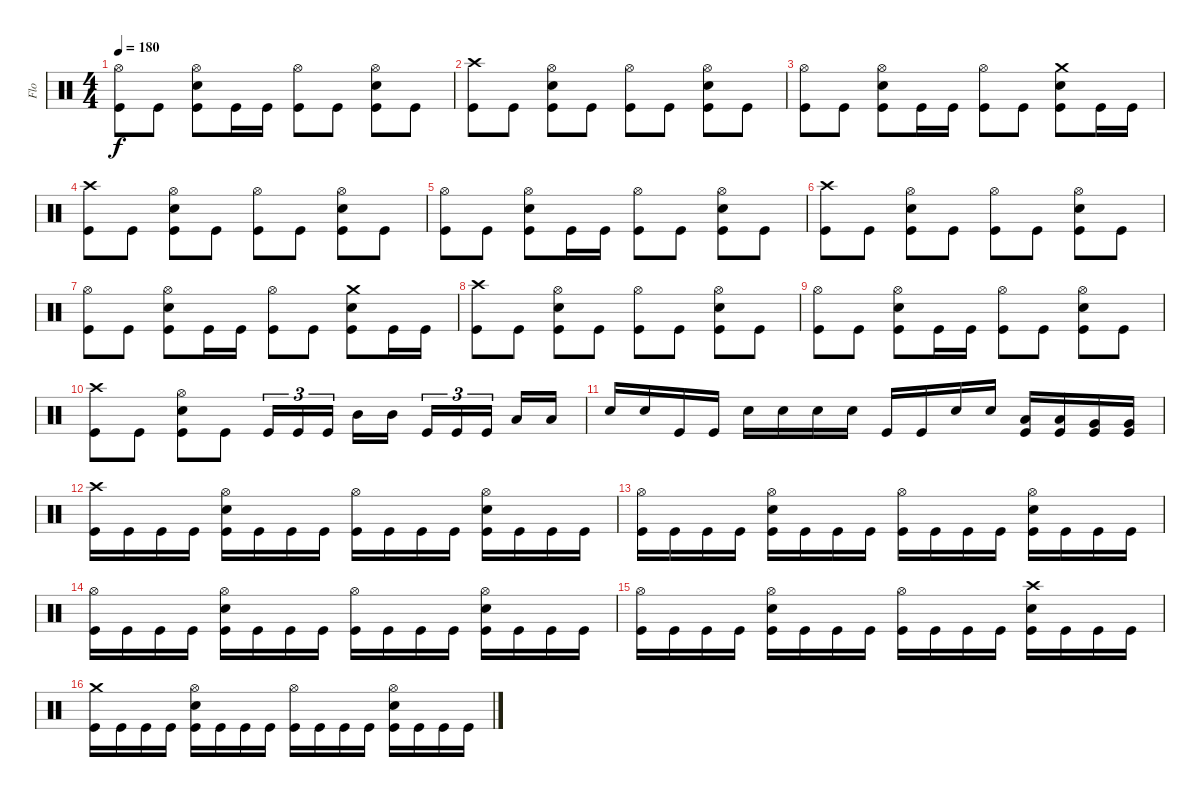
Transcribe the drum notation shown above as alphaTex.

\track ("Flo" "Flo") {instrument percussion}
\staff {score}
\articulation defaults
\ts (4 4)
\tempo 180
\clef neutral
\ks c
("Hi-Hat (open)" "Kick (hit)").8{dy f} "Kick (hit)".8 ("Hi-Hat (open)" "Snare (hit) 2" "Kick (hit)").8 "Kick (hit)".16 "Kick (hit)".16 ("Hi-Hat (open)" "Kick (hit)").8 "Kick (hit)".8 ("Hi-Hat (open)" "Snare (hit) 2" "Kick (hit)").8 "Kick (hit)".8 |
("Crash high (hit)" "Kick (hit)").8 "Kick (hit)".8 ("Hi-Hat (open)" "Snare (hit) 2" "Kick (hit)").8 "Kick (hit)".8 ("Hi-Hat (open)" "Kick (hit)").8 "Kick (hit)".8 ("Hi-Hat (open)" "Snare (hit) 2" "Kick (hit)").8 "Kick (hit)".8 |
("Hi-Hat (open)" "Kick (hit)").8 "Kick (hit)".8 ("Hi-Hat (open)" "Snare (hit) 2" "Kick (hit)").8 "Kick (hit)".16 "Kick (hit)".16 ("Hi-Hat (open)" "Kick (hit)").8 "Kick (hit)".8 ("Crash medium (hit)" "Snare (hit) 2" "Kick (hit)").8 "Kick (hit)".16 "Kick (hit)".16 |
("Crash high (hit)" "Kick (hit)").8 "Kick (hit)".8 ("Hi-Hat (open)" "Snare (hit) 2" "Kick (hit)").8 "Kick (hit)".8 ("Hi-Hat (open)" "Kick (hit)").8 "Kick (hit)".8 ("Hi-Hat (open)" "Snare (hit) 2" "Kick (hit)").8 "Kick (hit)".8 |
("Hi-Hat (open)" "Kick (hit)").8 "Kick (hit)".8 ("Hi-Hat (open)" "Snare (hit) 2" "Kick (hit)").8 "Kick (hit)".16 "Kick (hit)".16 ("Hi-Hat (open)" "Kick (hit)").8 "Kick (hit)".8 ("Hi-Hat (open)" "Snare (hit) 2" "Kick (hit)").8 "Kick (hit)".8 |
("Crash high (hit)" "Kick (hit)").8 "Kick (hit)".8 ("Hi-Hat (open)" "Snare (hit) 2" "Kick (hit)").8 "Kick (hit)".8 ("Hi-Hat (open)" "Kick (hit)").8 "Kick (hit)".8 ("Hi-Hat (open)" "Snare (hit) 2" "Kick (hit)").8 "Kick (hit)".8 |
("Hi-Hat (open)" "Kick (hit)").8 "Kick (hit)".8 ("Hi-Hat (open)" "Snare (hit) 2" "Kick (hit)").8 "Kick (hit)".16 "Kick (hit)".16 ("Hi-Hat (open)" "Kick (hit)").8 "Kick (hit)".8 ("Crash medium (hit)" "Snare (hit) 2" "Kick (hit)").8 "Kick (hit)".16 "Kick (hit)".16 |
("Crash high (hit)" "Kick (hit)").8 "Kick (hit)".8 ("Hi-Hat (open)" "Snare (hit) 2" "Kick (hit)").8 "Kick (hit)".8 ("Hi-Hat (open)" "Kick (hit)").8 "Kick (hit)".8 ("Hi-Hat (open)" "Snare (hit) 2" "Kick (hit)").8 "Kick (hit)".8 |
("Hi-Hat (open)" "Kick (hit)").8 "Kick (hit)".8 ("Hi-Hat (open)" "Snare (hit) 2" "Kick (hit)").8 "Kick (hit)".16 "Kick (hit)".16 ("Hi-Hat (open)" "Kick (hit)").8 "Kick (hit)".8 ("Hi-Hat (open)" "Snare (hit) 2" "Kick (hit)").8 "Kick (hit)".8 |
("Crash high (hit)" "Kick (hit)").8 "Kick (hit)".8 ("Hi-Hat (open)" "Snare (hit) 2" "Kick (hit)").8 "Kick (hit)".8 "Kick (hit)".16{tu (3 2)} "Kick (hit)".16{tu (3 2)} "Kick (hit)".16{tu (3 2)} "Mid Tom (hit)".16 "Mid Tom (hit)".16 "Kick (hit)".16{tu (3 2)} "Kick (hit)".16{tu (3 2)} "Kick (hit)".16{tu (3 2)} "Low Tom (hit)".16 "Low Tom (hit)".16 |
"Snare (hit) 2".16 "Snare (hit) 2".16 "Kick (hit)".16 "Kick (hit)".16 "Snare (hit) 2".16 "Snare (hit) 2".16 "Snare (hit) 2".16 "Snare (hit) 2".16 "Kick (hit)".16 "Kick (hit)".16 "Snare (hit) 2".16 "Snare (hit) 2".16 ("Low Tom (hit)" "Kick (hit)").16 ("Low Tom (hit)" "Kick (hit)").16 ("Very Low Tom (hit)" "Kick (hit)").16 ("Very Low Tom (hit)" "Kick (hit)").16 |
("Crash high (hit)" "Kick (hit)").16 "Kick (hit)".16 "Kick (hit)".16 "Kick (hit)".16 ("Hi-Hat (open)" "Snare (hit) 2" "Kick (hit)").16 "Kick (hit)".16 "Kick (hit)".16 "Kick (hit)".16 ("Hi-Hat (open)" "Kick (hit)").16 "Kick (hit)".16 "Kick (hit)".16 "Kick (hit)".16 ("Hi-Hat (open)" "Snare (hit) 2" "Kick (hit)").16 "Kick (hit)".16 "Kick (hit)".16 "Kick (hit)".16 |
("Hi-Hat (open)" "Kick (hit)").16 "Kick (hit)".16 "Kick (hit)".16 "Kick (hit)".16 ("Hi-Hat (open)" "Snare (hit) 2" "Kick (hit)").16 "Kick (hit)".16 "Kick (hit)".16 "Kick (hit)".16 ("Hi-Hat (open)" "Kick (hit)").16 "Kick (hit)".16 "Kick (hit)".16 "Kick (hit)".16 ("Hi-Hat (open)" "Snare (hit) 2" "Kick (hit)").16 "Kick (hit)".16 "Kick (hit)".16 "Kick (hit)".16 |
("Hi-Hat (open)" "Kick (hit)").16 "Kick (hit)".16 "Kick (hit)".16 "Kick (hit)".16 ("Hi-Hat (open)" "Snare (hit) 2" "Kick (hit)").16 "Kick (hit)".16 "Kick (hit)".16 "Kick (hit)".16 ("Hi-Hat (open)" "Kick (hit)").16 "Kick (hit)".16 "Kick (hit)".16 "Kick (hit)".16 ("Hi-Hat (open)" "Snare (hit) 2" "Kick (hit)").16 "Kick (hit)".16 "Kick (hit)".16 "Kick (hit)".16 |
("Hi-Hat (open)" "Kick (hit)").16 "Kick (hit)".16 "Kick (hit)".16 "Kick (hit)".16 ("Hi-Hat (open)" "Snare (hit) 2" "Kick (hit)").16 "Kick (hit)".16 "Kick (hit)".16 "Kick (hit)".16 ("Hi-Hat (open)" "Kick (hit)").16 "Kick (hit)".16 "Kick (hit)".16 "Kick (hit)".16 ("Crash high (hit)" "Snare (hit) 2" "Kick (hit)").16 "Kick (hit)".16 "Kick (hit)".16 "Kick (hit)".16 |
("Crash medium (hit)" "Kick (hit)").16 "Kick (hit)".16 "Kick (hit)".16 "Kick (hit)".16 ("Hi-Hat (open)" "Snare (hit) 2" "Kick (hit)").16 "Kick (hit)".16 "Kick (hit)".16 "Kick (hit)".16 ("Hi-Hat (open)" "Kick (hit)").16 "Kick (hit)".16 "Kick (hit)".16 "Kick (hit)".16 ("Hi-Hat (open)" "Snare (hit) 2" "Kick (hit)").16 "Kick (hit)".16 "Kick (hit)".16 "Kick (hit)".16
